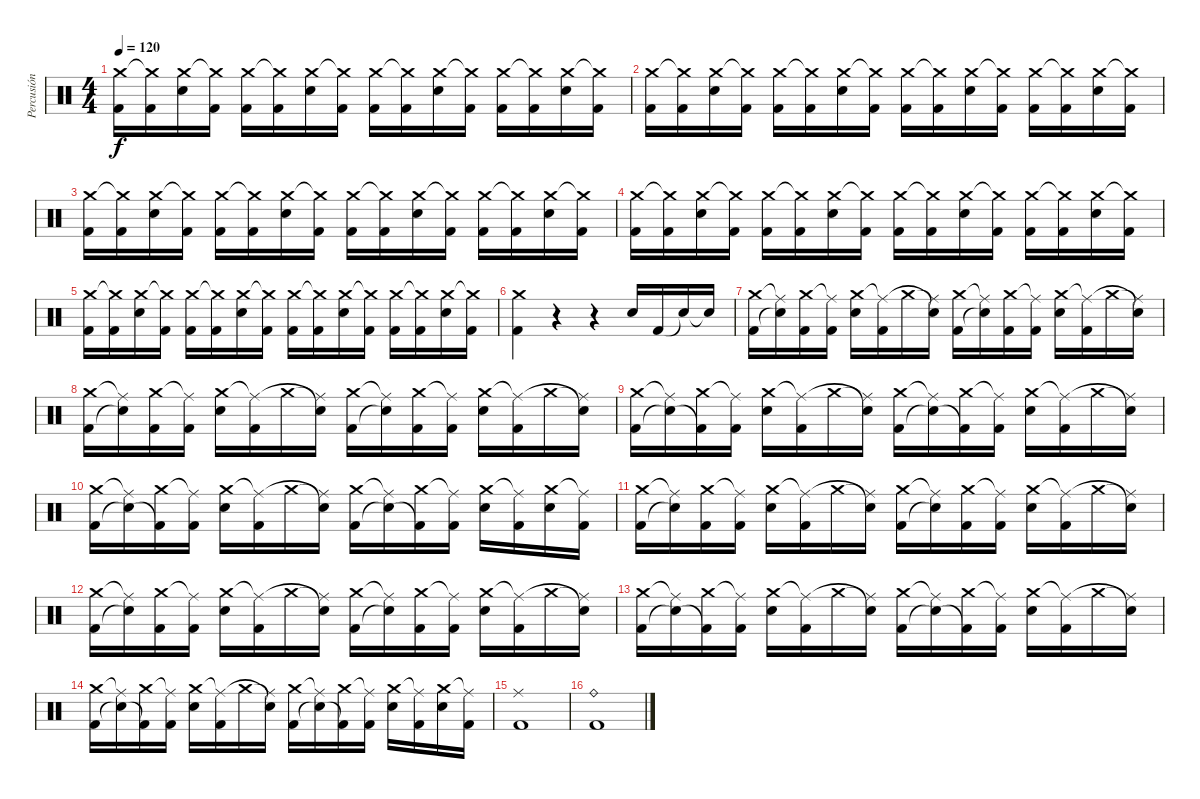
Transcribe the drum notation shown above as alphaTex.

\track ("Percusión" "Percusión") {instrument percussion}
\staff {score}
\articulation defaults
\ts (4 4)
\tempo 120
\clef neutral
\ks c
("Kick (hit) 2" "Crash medium (hit)").16{dy f} ("Kick (hit) 2" "Crash medium (hit)"{t}).16 ("Electric Snare (hit)" "Crash medium (hit)").16 ("Kick (hit) 2" "Crash medium (hit)"{t}).16 ("Kick (hit) 2" "Crash medium (hit)").16 ("Kick (hit) 2" "Crash medium (hit)"{t}).16 ("Electric Snare (hit)" "Crash medium (hit)").16 ("Kick (hit) 2" "Crash medium (hit)"{t}).16 ("Kick (hit) 2" "Crash medium (hit)").16 ("Kick (hit) 2" "Crash medium (hit)"{t}).16 ("Electric Snare (hit)" "Crash medium (hit)").16 ("Kick (hit) 2" "Crash medium (hit)"{t}).16 ("Kick (hit) 2" "Crash medium (hit)").16 ("Kick (hit) 2" "Crash medium (hit)"{t}).16 ("Electric Snare (hit)" "Crash medium (hit)").16 ("Kick (hit) 2" "Crash medium (hit)"{t}).16 |
("Kick (hit) 2" "Crash medium (hit)").16 ("Kick (hit) 2" "Crash medium (hit)"{t}).16 ("Electric Snare (hit)" "Crash medium (hit)").16 ("Kick (hit) 2" "Crash medium (hit)"{t}).16 ("Kick (hit) 2" "Crash medium (hit)").16 ("Kick (hit) 2" "Crash medium (hit)"{t}).16 ("Electric Snare (hit)" "Crash medium (hit)").16 ("Kick (hit) 2" "Crash medium (hit)"{t}).16 ("Kick (hit) 2" "Crash medium (hit)").16 ("Kick (hit) 2" "Crash medium (hit)"{t}).16 ("Electric Snare (hit)" "Crash medium (hit)").16 ("Kick (hit) 2" "Crash medium (hit)"{t}).16 ("Kick (hit) 2" "Crash medium (hit)").16 ("Kick (hit) 2" "Crash medium (hit)"{t}).16 ("Electric Snare (hit)" "Crash medium (hit)").16 ("Kick (hit) 2" "Crash medium (hit)"{t}).16 |
("Kick (hit) 2" "Crash medium (hit)").16 ("Kick (hit) 2" "Crash medium (hit)"{t}).16 ("Electric Snare (hit)" "Crash medium (hit)").16 ("Kick (hit) 2" "Crash medium (hit)"{t}).16 ("Kick (hit) 2" "Crash medium (hit)").16 ("Kick (hit) 2" "Crash medium (hit)"{t}).16 ("Electric Snare (hit)" "Crash medium (hit)").16 ("Kick (hit) 2" "Crash medium (hit)"{t}).16 ("Kick (hit) 2" "Crash medium (hit)").16 ("Kick (hit) 2" "Crash medium (hit)"{t}).16 ("Electric Snare (hit)" "Crash medium (hit)").16 ("Kick (hit) 2" "Crash medium (hit)"{t}).16 ("Kick (hit) 2" "Crash medium (hit)").16 ("Kick (hit) 2" "Crash medium (hit)"{t}).16 ("Electric Snare (hit)" "Crash medium (hit)").16 ("Kick (hit) 2" "Crash medium (hit)"{t}).16 |
("Kick (hit) 2" "Crash medium (hit)").16 ("Kick (hit) 2" "Crash medium (hit)"{t}).16 ("Electric Snare (hit)" "Crash medium (hit)").16 ("Kick (hit) 2" "Crash medium (hit)"{t}).16 ("Kick (hit) 2" "Crash medium (hit)").16 ("Kick (hit) 2" "Crash medium (hit)"{t}).16 ("Electric Snare (hit)" "Crash medium (hit)").16 ("Kick (hit) 2" "Crash medium (hit)"{t}).16 ("Kick (hit) 2" "Crash medium (hit)").16 ("Kick (hit) 2" "Crash medium (hit)"{t}).16 ("Electric Snare (hit)" "Crash medium (hit)").16 ("Kick (hit) 2" "Crash medium (hit)"{t}).16 ("Kick (hit) 2" "Crash medium (hit)").16 ("Kick (hit) 2" "Crash medium (hit)"{t}).16 ("Electric Snare (hit)" "Crash medium (hit)").16 ("Kick (hit) 2" "Crash medium (hit)"{t}).16 |
("Kick (hit) 2" "Crash medium (hit)").16 ("Kick (hit) 2" "Crash medium (hit)"{t}).16 ("Electric Snare (hit)" "Crash medium (hit)").16 ("Kick (hit) 2" "Crash medium (hit)"{t}).16 ("Kick (hit) 2" "Crash medium (hit)").16 ("Kick (hit) 2" "Crash medium (hit)"{t}).16 ("Electric Snare (hit)" "Crash medium (hit)").16 ("Kick (hit) 2" "Crash medium (hit)"{t}).16 ("Kick (hit) 2" "Crash medium (hit)").16 ("Kick (hit) 2" "Crash medium (hit)"{t}).16 ("Electric Snare (hit)" "Crash medium (hit)").16 ("Kick (hit) 2" "Crash medium (hit)"{t}).16 ("Kick (hit) 2" "Crash medium (hit)").16 ("Kick (hit) 2" "Crash medium (hit)"{t}).16 ("Electric Snare (hit)" "Crash medium (hit)").16 ("Kick (hit) 2" "Crash medium (hit)"{t}).16 |
("Crash medium (hit)" "Kick (hit) 2").4 r.4 r.4 "Electric Snare (hit)".16 "Kick (hit) 2".16 "Snare (hit)"{t}.16 "Snare (hit)"{t}.16 |
("Kick (hit) 2" "Crash medium (hit)").16 ("Snare (hit)"{t} "Ride (middle)"{t}).16 ("Kick (hit) 2" "Crash medium (hit)").16 ("Kick (hit) 2" "Ride (middle)"{t}).16 ("Electric Snare (hit)" "Crash medium (hit)").16 ("Kick (hit) 2" "Ride (middle)"{t}).16 "Crash medium (hit)".16 ("Snare (hit)"{t} "Ride (middle)"{t}).16 ("Kick (hit) 2" "Crash medium (hit)").16 ("Snare (hit)"{t} "Ride (middle)"{t}).16 ("Kick (hit) 2" "Crash medium (hit)").16 ("Kick (hit) 2" "Ride (middle)"{t}).16 ("Electric Snare (hit)" "Crash medium (hit)").16 ("Kick (hit) 2" "Ride (middle)"{t}).16 "Crash medium (hit)".16 ("Snare (hit)"{t} "Ride (middle)"{t}).16 |
("Kick (hit) 2" "Crash medium (hit)").16 ("Snare (hit)"{t} "Ride (middle)"{t}).16 ("Kick (hit) 2" "Crash medium (hit)").16 ("Kick (hit) 2" "Ride (middle)"{t}).16 ("Electric Snare (hit)" "Crash medium (hit)").16 ("Kick (hit) 2" "Ride (middle)"{t}).16 "Crash medium (hit)".16 ("Snare (hit)"{t} "Ride (middle)"{t}).16 ("Kick (hit) 2" "Crash medium (hit)").16 ("Snare (hit)"{t} "Ride (middle)"{t}).16 ("Kick (hit) 2" "Crash medium (hit)").16 ("Kick (hit) 2" "Ride (middle)"{t}).16 ("Electric Snare (hit)" "Crash medium (hit)").16 ("Kick (hit) 2" "Ride (middle)"{t}).16 "Crash medium (hit)".16 ("Snare (hit)"{t} "Ride (middle)"{t}).16 |
("Kick (hit) 2" "Crash medium (hit)").16 ("Snare (hit)"{t} "Ride (middle)"{t}).16 ("Kick (hit) 2"{t} "Crash medium (hit)").16 ("Kick (hit) 2" "Ride (middle)"{t}).16 ("Electric Snare (hit)" "Crash medium (hit)").16 ("Kick (hit) 2" "Ride (middle)"{t}).16 "Crash medium (hit)".16 ("Snare (hit)"{t} "Ride (middle)"{t}).16 ("Kick (hit) 2" "Crash medium (hit)").16 ("Snare (hit)"{t} "Ride (middle)"{t}).16 ("Kick (hit) 2"{t} "Crash medium (hit)").16 ("Kick (hit) 2" "Ride (middle)"{t}).16 ("Electric Snare (hit)" "Crash medium (hit)").16 ("Kick (hit) 2" "Ride (middle)"{t}).16 "Crash medium (hit)".16 ("Snare (hit)"{t} "Ride (middle)"{t}).16 |
("Kick (hit) 2" "Crash medium (hit)").16 ("Snare (hit)"{t} "Ride (middle)"{t}).16 ("Kick (hit) 2"{t} "Crash medium (hit)").16 ("Kick (hit) 2" "Ride (middle)"{t}).16 ("Electric Snare (hit)" "Crash medium (hit)").16 ("Kick (hit) 2" "Ride (middle)"{t}).16 "Crash medium (hit)".16 ("Snare (hit)"{t} "Ride (middle)"{t}).16 ("Kick (hit) 2" "Crash medium (hit)").16 ("Snare (hit)"{t} "Ride (middle)"{t}).16 ("Kick (hit) 2"{t} "Crash medium (hit)").16 ("Kick (hit) 2" "Ride (middle)"{t}).16 ("Electric Snare (hit)" "Crash medium (hit)").16 ("Kick (hit) 2" "Ride (middle)"{t}).16 ("Electric Snare (hit)" "Crash medium (hit)").16 ("Kick (hit) 2" "Ride (middle)"{t}).16 |
("Kick (hit) 2" "Crash medium (hit)").16 ("Snare (hit)"{t} "Ride (middle)"{t}).16 ("Kick (hit) 2" "Crash medium (hit)").16 ("Kick (hit) 2" "Ride (middle)"{t}).16 ("Electric Snare (hit)" "Crash medium (hit)").16 ("Kick (hit) 2" "Ride (middle)"{t}).16 "Crash medium (hit)".16 ("Snare (hit)"{t} "Ride (middle)"{t}).16 ("Kick (hit) 2" "Crash medium (hit)").16 ("Snare (hit)"{t} "Ride (middle)"{t}).16 ("Kick (hit) 2" "Crash medium (hit)").16 ("Kick (hit) 2" "Ride (middle)"{t}).16 ("Electric Snare (hit)" "Crash medium (hit)").16 ("Kick (hit) 2" "Ride (middle)"{t}).16 "Crash medium (hit)".16 ("Snare (hit)"{t} "Ride (middle)"{t}).16 |
("Kick (hit) 2" "Crash medium (hit)").16 ("Snare (hit)"{t} "Ride (middle)"{t}).16 ("Kick (hit) 2" "Crash medium (hit)").16 ("Kick (hit) 2" "Ride (middle)"{t}).16 ("Electric Snare (hit)" "Crash medium (hit)").16 ("Kick (hit) 2" "Ride (middle)"{t}).16 "Crash medium (hit)".16 ("Snare (hit)"{t} "Ride (middle)"{t}).16 ("Kick (hit) 2" "Crash medium (hit)").16 ("Snare (hit)"{t} "Ride (middle)"{t}).16 ("Kick (hit) 2" "Crash medium (hit)").16 ("Kick (hit) 2" "Ride (middle)"{t}).16 ("Electric Snare (hit)" "Crash medium (hit)").16 ("Kick (hit) 2" "Ride (middle)"{t}).16 "Crash medium (hit)".16 ("Snare (hit)"{t} "Ride (middle)"{t}).16 |
("Kick (hit) 2" "Crash medium (hit)").16 ("Snare (hit)"{t} "Ride (middle)"{t}).16 ("Kick (hit) 2"{t} "Crash medium (hit)").16 ("Kick (hit) 2" "Ride (middle)"{t}).16 ("Electric Snare (hit)" "Crash medium (hit)").16 ("Kick (hit) 2" "Ride (middle)"{t}).16 "Crash medium (hit)".16 ("Snare (hit)"{t} "Ride (middle)"{t}).16 ("Kick (hit) 2" "Crash medium (hit)").16 ("Snare (hit)"{t} "Ride (middle)"{t}).16 ("Kick (hit) 2"{t} "Crash medium (hit)").16 ("Kick (hit) 2" "Ride (middle)"{t}).16 ("Electric Snare (hit)" "Crash medium (hit)").16 ("Kick (hit) 2" "Ride (middle)"{t}).16 "Crash medium (hit)".16 ("Snare (hit)"{t} "Ride (middle)"{t}).16 |
("Kick (hit) 2" "Crash medium (hit)").16 ("Snare (hit)"{t} "Ride (middle)"{t}).16 ("Kick (hit) 2"{t} "Crash medium (hit)").16 ("Kick (hit) 2" "Ride (middle)"{t}).16 ("Electric Snare (hit)" "Crash medium (hit)").16 ("Kick (hit) 2" "Ride (middle)"{t}).16 "Crash medium (hit)".16 ("Snare (hit)"{t} "Ride (middle)"{t}).16 ("Kick (hit) 2" "Crash medium (hit)").16 ("Snare (hit)"{t} "Ride (middle)"{t}).16 ("Kick (hit) 2"{t} "Crash medium (hit)").16 ("Kick (hit) 2" "Ride (middle)"{t}).16 ("Electric Snare (hit)" "Crash medium (hit)").16 ("Kick (hit) 2" "Ride (middle)"{t}).16 ("Electric Snare (hit)" "Crash medium (hit)").16 ("Kick (hit) 2" "Ride (middle)"{t}).16 |
("Ride (middle)" "Kick (hit) 2").1 |
("Ride (bell)" "Kick (hit) 2").1
